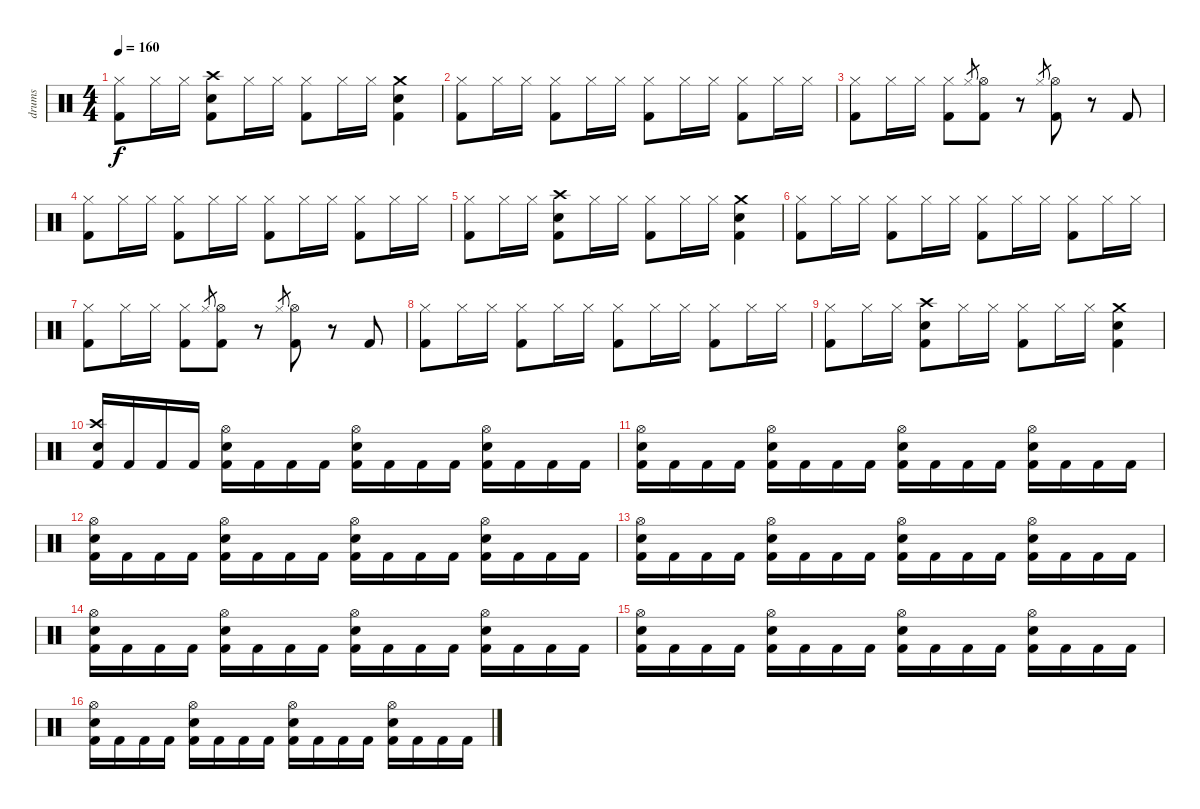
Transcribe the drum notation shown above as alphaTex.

\track ("drums" "drums") {instrument percussion}
\staff {score}
\articulation defaults
\ts (4 4)
\tempo 160
\clef neutral
\ks c
("Hi-Hat (closed)" "Kick (hit) 2").8{dy f} "Hi-Hat (closed)".16 "Hi-Hat (closed)".16 ("Crash high (hit)" "Snare (hit) 2" "Kick (hit) 2").8 "Hi-Hat (closed)".16 "Hi-Hat (closed)".16 ("Hi-Hat (closed)" "Kick (hit) 2").8 "Hi-Hat (closed)".16 "Hi-Hat (closed)".16 ("Crash medium (hit)" "Snare (hit) 2" "Kick (hit) 2").4 |
("Hi-Hat (closed)" "Kick (hit) 2").8 "Hi-Hat (closed)".16 "Hi-Hat (closed)".16 ("Hi-Hat (closed)" "Kick (hit) 2").8 "Hi-Hat (closed)".16 "Hi-Hat (closed)".16 ("Hi-Hat (closed)" "Kick (hit) 2").8 "Hi-Hat (closed)".16 "Hi-Hat (closed)".16 ("Hi-Hat (closed)" "Kick (hit) 2").8 "Hi-Hat (closed)".16 "Hi-Hat (closed)".16 |
("Hi-Hat (closed)" "Kick (hit) 2").8 "Hi-Hat (closed)".16 "Hi-Hat (closed)".16 ("Hi-Hat (closed)" "Kick (hit) 2").8 "Hi-Hat (closed)".8{gr} ("Hi-Hat (open)" "Kick (hit) 2").8 r.8 "Hi-Hat (closed)".8{gr} ("Hi-Hat (open)" "Kick (hit) 2").8 r.8 "Kick (hit) 2".8 |
("Hi-Hat (closed)" "Kick (hit) 2").8 "Hi-Hat (closed)".16 "Hi-Hat (closed)".16 ("Hi-Hat (closed)" "Kick (hit) 2").8 "Hi-Hat (closed)".16 "Hi-Hat (closed)".16 ("Hi-Hat (closed)" "Kick (hit) 2").8 "Hi-Hat (closed)".16 "Hi-Hat (closed)".16 ("Hi-Hat (closed)" "Kick (hit) 2").8 "Hi-Hat (closed)".16 "Hi-Hat (closed)".16 |
("Hi-Hat (closed)" "Kick (hit) 2").8 "Hi-Hat (closed)".16 "Hi-Hat (closed)".16 ("Crash high (hit)" "Snare (hit) 2" "Kick (hit) 2").8 "Hi-Hat (closed)".16 "Hi-Hat (closed)".16 ("Hi-Hat (closed)" "Kick (hit) 2").8 "Hi-Hat (closed)".16 "Hi-Hat (closed)".16 ("Crash medium (hit)" "Snare (hit) 2" "Kick (hit) 2").4 |
("Hi-Hat (closed)" "Kick (hit) 2").8 "Hi-Hat (closed)".16 "Hi-Hat (closed)".16 ("Hi-Hat (closed)" "Kick (hit) 2").8 "Hi-Hat (closed)".16 "Hi-Hat (closed)".16 ("Hi-Hat (closed)" "Kick (hit) 2").8 "Hi-Hat (closed)".16 "Hi-Hat (closed)".16 ("Hi-Hat (closed)" "Kick (hit) 2").8 "Hi-Hat (closed)".16 "Hi-Hat (closed)".16 |
("Hi-Hat (closed)" "Kick (hit) 2").8 "Hi-Hat (closed)".16 "Hi-Hat (closed)".16 ("Hi-Hat (closed)" "Kick (hit) 2").8 "Hi-Hat (closed)".8{gr} ("Hi-Hat (open)" "Kick (hit) 2").8 r.8 "Hi-Hat (closed)".8{gr} ("Hi-Hat (open)" "Kick (hit) 2").8 r.8 "Kick (hit) 2".8 |
("Hi-Hat (closed)" "Kick (hit) 2").8 "Hi-Hat (closed)".16 "Hi-Hat (closed)".16 ("Hi-Hat (closed)" "Kick (hit) 2").8 "Hi-Hat (closed)".16 "Hi-Hat (closed)".16 ("Hi-Hat (closed)" "Kick (hit) 2").8 "Hi-Hat (closed)".16 "Hi-Hat (closed)".16 ("Hi-Hat (closed)" "Kick (hit) 2").8 "Hi-Hat (closed)".16 "Hi-Hat (closed)".16 |
("Hi-Hat (closed)" "Kick (hit) 2").8 "Hi-Hat (closed)".16 "Hi-Hat (closed)".16 ("Crash high (hit)" "Snare (hit) 2" "Kick (hit) 2").8 "Hi-Hat (closed)".16 "Hi-Hat (closed)".16 ("Hi-Hat (closed)" "Kick (hit) 2").8 "Hi-Hat (closed)".16 "Hi-Hat (closed)".16 ("Crash medium (hit)" "Snare (hit) 2" "Kick (hit) 2").4 |
("Crash high (hit)" "Snare (hit) 2" "Kick (hit) 2").16 "Kick (hit) 2".16 "Kick (hit) 2".16 "Kick (hit) 2".16 ("Hi-Hat (open)" "Snare (hit) 2" "Kick (hit) 2").16 "Kick (hit) 2".16 "Kick (hit) 2".16 "Kick (hit) 2".16 ("Hi-Hat (open)" "Snare (hit) 2" "Kick (hit) 2").16 "Kick (hit) 2".16 "Kick (hit) 2".16 "Kick (hit) 2".16 ("Hi-Hat (open)" "Snare (hit) 2" "Kick (hit) 2").16 "Kick (hit) 2".16 "Kick (hit) 2".16 "Kick (hit) 2".16 |
("Hi-Hat (open)" "Snare (hit) 2" "Kick (hit) 2").16 "Kick (hit) 2".16 "Kick (hit) 2".16 "Kick (hit) 2".16 ("Hi-Hat (open)" "Snare (hit) 2" "Kick (hit) 2").16 "Kick (hit) 2".16 "Kick (hit) 2".16 "Kick (hit) 2".16 ("Hi-Hat (open)" "Snare (hit) 2" "Kick (hit) 2").16 "Kick (hit) 2".16 "Kick (hit) 2".16 "Kick (hit) 2".16 ("Hi-Hat (open)" "Snare (hit) 2" "Kick (hit) 2").16 "Kick (hit) 2".16 "Kick (hit) 2".16 "Kick (hit) 2".16 |
("Hi-Hat (open)" "Snare (hit) 2" "Kick (hit) 2").16 "Kick (hit) 2".16 "Kick (hit) 2".16 "Kick (hit) 2".16 ("Hi-Hat (open)" "Snare (hit) 2" "Kick (hit) 2").16 "Kick (hit) 2".16 "Kick (hit) 2".16 "Kick (hit) 2".16 ("Hi-Hat (open)" "Snare (hit) 2" "Kick (hit) 2").16 "Kick (hit) 2".16 "Kick (hit) 2".16 "Kick (hit) 2".16 ("Hi-Hat (open)" "Snare (hit) 2" "Kick (hit) 2").16 "Kick (hit) 2".16 "Kick (hit) 2".16 "Kick (hit) 2".16 |
("Hi-Hat (open)" "Snare (hit) 2" "Kick (hit) 2").16 "Kick (hit) 2".16 "Kick (hit) 2".16 "Kick (hit) 2".16 ("Hi-Hat (open)" "Snare (hit) 2" "Kick (hit) 2").16 "Kick (hit) 2".16 "Kick (hit) 2".16 "Kick (hit) 2".16 ("Hi-Hat (open)" "Snare (hit) 2" "Kick (hit) 2").16 "Kick (hit) 2".16 "Kick (hit) 2".16 "Kick (hit) 2".16 ("Hi-Hat (open)" "Snare (hit) 2" "Kick (hit) 2").16 "Kick (hit) 2".16 "Kick (hit) 2".16 "Kick (hit) 2".16 |
("Hi-Hat (open)" "Snare (hit) 2" "Kick (hit) 2").16 "Kick (hit) 2".16 "Kick (hit) 2".16 "Kick (hit) 2".16 ("Hi-Hat (open)" "Snare (hit) 2" "Kick (hit) 2").16 "Kick (hit) 2".16 "Kick (hit) 2".16 "Kick (hit) 2".16 ("Hi-Hat (open)" "Snare (hit) 2" "Kick (hit) 2").16 "Kick (hit) 2".16 "Kick (hit) 2".16 "Kick (hit) 2".16 ("Hi-Hat (open)" "Snare (hit) 2" "Kick (hit) 2").16 "Kick (hit) 2".16 "Kick (hit) 2".16 "Kick (hit) 2".16 |
("Hi-Hat (open)" "Snare (hit) 2" "Kick (hit) 2").16 "Kick (hit) 2".16 "Kick (hit) 2".16 "Kick (hit) 2".16 ("Hi-Hat (open)" "Snare (hit) 2" "Kick (hit) 2").16 "Kick (hit) 2".16 "Kick (hit) 2".16 "Kick (hit) 2".16 ("Hi-Hat (open)" "Snare (hit) 2" "Kick (hit) 2").16 "Kick (hit) 2".16 "Kick (hit) 2".16 "Kick (hit) 2".16 ("Hi-Hat (open)" "Snare (hit) 2" "Kick (hit) 2").16 "Kick (hit) 2".16 "Kick (hit) 2".16 "Kick (hit) 2".16 |
("Hi-Hat (open)" "Snare (hit) 2" "Kick (hit) 2").16 "Kick (hit) 2".16 "Kick (hit) 2".16 "Kick (hit) 2".16 ("Hi-Hat (open)" "Snare (hit) 2" "Kick (hit) 2").16 "Kick (hit) 2".16 "Kick (hit) 2".16 "Kick (hit) 2".16 ("Hi-Hat (open)" "Snare (hit) 2" "Kick (hit) 2").16 "Kick (hit) 2".16 "Kick (hit) 2".16 "Kick (hit) 2".16 ("Hi-Hat (open)" "Snare (hit) 2" "Kick (hit) 2").16 "Kick (hit) 2".16 "Kick (hit) 2".16 "Kick (hit) 2".16
